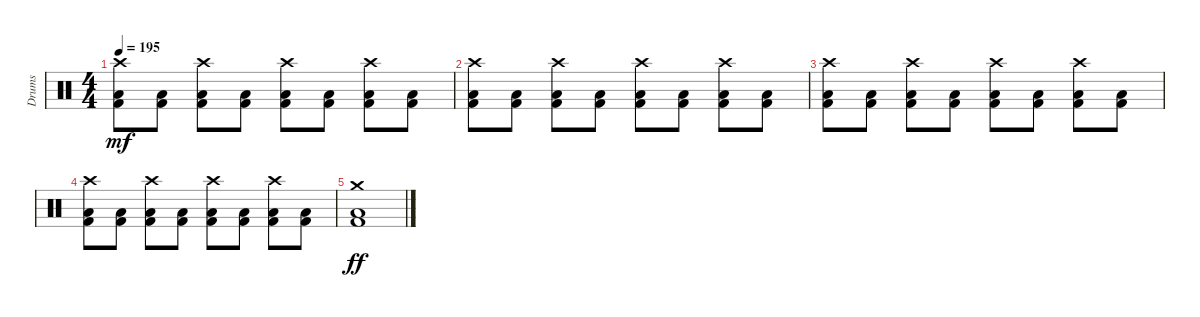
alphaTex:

\track ("Drums" "Drums") {instrument percussion}
\staff {score}
\articulation defaults
\ts (4 4)
\tempo 195
\clef neutral
\ks c
("Crash high (hit)" "Low Floor Tom (hit)" "Kick (hit) 2").8{dy mf} ("Low Floor Tom (hit)" "Kick (hit) 2").8 ("Crash high (hit)" "Low Floor Tom (hit)" "Kick (hit) 2").8 ("Low Floor Tom (hit)" "Kick (hit) 2").8 ("Crash high (hit)" "Low Floor Tom (hit)" "Kick (hit) 2").8 ("Low Floor Tom (hit)" "Kick (hit) 2").8 ("Crash high (hit)" "Low Floor Tom (hit)" "Kick (hit) 2").8 ("Low Floor Tom (hit)" "Kick (hit) 2").8 |
("Crash high (hit)" "Low Floor Tom (hit)" "Kick (hit) 2").8 ("Low Floor Tom (hit)" "Kick (hit) 2").8 ("Crash high (hit)" "Low Floor Tom (hit)" "Kick (hit) 2").8 ("Low Floor Tom (hit)" "Kick (hit) 2").8 ("Crash high (hit)" "Low Floor Tom (hit)" "Kick (hit) 2").8 ("Low Floor Tom (hit)" "Kick (hit) 2").8 ("Crash high (hit)" "Low Floor Tom (hit)" "Kick (hit) 2").8 ("Low Floor Tom (hit)" "Kick (hit) 2").8 |
("Crash high (hit)" "Low Floor Tom (hit)" "Kick (hit) 2").8 ("Low Floor Tom (hit)" "Kick (hit) 2").8 ("Crash high (hit)" "Low Floor Tom (hit)" "Kick (hit) 2").8 ("Low Floor Tom (hit)" "Kick (hit) 2").8 ("Crash high (hit)" "Low Floor Tom (hit)" "Kick (hit) 2").8 ("Low Floor Tom (hit)" "Kick (hit) 2").8 ("Crash high (hit)" "Low Floor Tom (hit)" "Kick (hit) 2").8 ("Low Floor Tom (hit)" "Kick (hit) 2").8 |
("Crash high (hit)" "Low Floor Tom (hit)" "Kick (hit) 2").8 ("Low Floor Tom (hit)" "Kick (hit) 2").8 ("Crash high (hit)" "Low Floor Tom (hit)" "Kick (hit) 2").8 ("Low Floor Tom (hit)" "Kick (hit) 2").8 ("Crash high (hit)" "Low Floor Tom (hit)" "Kick (hit) 2").8 ("Low Floor Tom (hit)" "Kick (hit) 2").8 ("Crash high (hit)" "Low Floor Tom (hit)" "Kick (hit) 2").8 ("Low Floor Tom (hit)" "Kick (hit) 2").8 |
("Crash medium (hit)" "Low Floor Tom (hit)" "Kick (hit) 2").1{dy ff}
